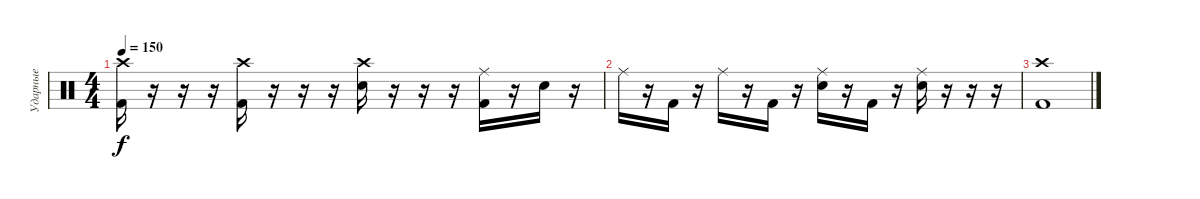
\track ("Ударные" "Ударные") {instrument percussion}
\staff {score}
\articulation defaults
\ts (4 4)
\tempo 150
\clef neutral
\ks c
("Crash high (hit)" "Kick (hit) 2").16{dy f} r.16 r.16 r.16 ("Crash high (hit)" "Kick (hit) 2").16 r.16 r.16 r.16 ("Crash high (hit)" "Electric Snare (hit)").16 r.16 r.16 r.16 ("Ride (middle)" "Kick (hit) 2").16 r.16 "Electric Snare (hit)".16 r.16 |
"Ride (middle)".16 r.16 "Kick (hit) 2".16 r.16 "Ride (middle)".16 r.16 "Kick (hit) 2".16 r.16 ("Ride (middle)" "Electric Snare (hit)").16 r.16 "Kick (hit) 2".16 r.16 ("Ride (middle)" "Electric Snare (hit)").16 r.16 r.16 r.16 |
("Crash high (hit)" "Kick (hit) 2").1
